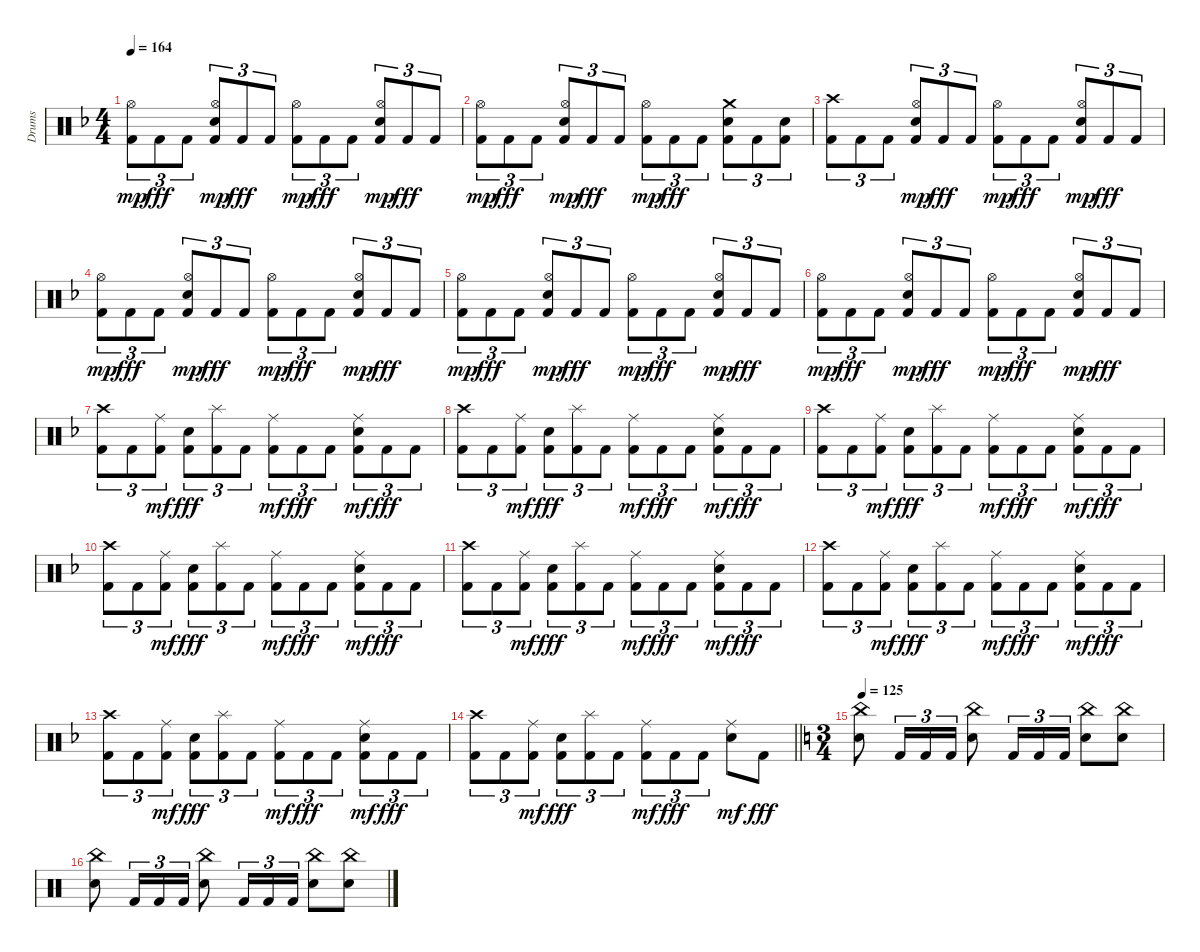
\track ("Drums" "Drums") {instrument percussion}
\staff {score}
\articulation defaults
\ts (4 4)
\tempo 164
\clef neutral
\ks f
("Kick (hit) 2" "Hi-Hat (open)").8{tu (3 2) dy mp} "Kick (hit) 2".8{tu (3 2) dy fff} "Kick (hit) 2".8{tu (3 2)} ("Kick (hit) 2" "Electric Snare (hit)" "Hi-Hat (open)").8{tu (3 2) dy mp} "Kick (hit) 2".8{tu (3 2) dy fff} "Kick (hit) 2".8{tu (3 2)} ("Kick (hit) 2" "Hi-Hat (open)").8{tu (3 2) dy mp} "Kick (hit) 2".8{tu (3 2) dy fff} "Kick (hit) 2".8{tu (3 2)} ("Kick (hit) 2" "Electric Snare (hit)" "Hi-Hat (open)").8{tu (3 2) dy mp} "Kick (hit) 2".8{tu (3 2) dy fff} "Kick (hit) 2".8{tu (3 2)} |
("Kick (hit) 2" "Hi-Hat (open)").8{tu (3 2) dy mp} "Kick (hit) 2".8{tu (3 2) dy fff} "Kick (hit) 2".8{tu (3 2)} ("Kick (hit) 2" "Electric Snare (hit)" "Hi-Hat (open)").8{tu (3 2) dy mp} "Kick (hit) 2".8{tu (3 2) dy fff} "Kick (hit) 2".8{tu (3 2)} ("Kick (hit) 2" "Hi-Hat (open)").8{tu (3 2) dy mp} "Kick (hit) 2".8{tu (3 2) dy fff} "Kick (hit) 2".8{tu (3 2)} ("Kick (hit) 2" "Electric Snare (hit)" "Crash medium (hit)").8{tu (3 2)} "Kick (hit) 2".8{tu (3 2)} ("Kick (hit) 2" "Electric Snare (hit)").8{tu (3 2)} |
("Kick (hit) 2" "Crash high (hit)").8{tu (3 2)} "Kick (hit) 2".8{tu (3 2)} "Kick (hit) 2".8{tu (3 2)} ("Kick (hit) 2" "Electric Snare (hit)" "Hi-Hat (open)").8{tu (3 2) dy mp} "Kick (hit) 2".8{tu (3 2) dy fff} "Kick (hit) 2".8{tu (3 2)} ("Kick (hit) 2" "Hi-Hat (open)").8{tu (3 2) dy mp} "Kick (hit) 2".8{tu (3 2) dy fff} "Kick (hit) 2".8{tu (3 2)} ("Kick (hit) 2" "Electric Snare (hit)" "Hi-Hat (open)").8{tu (3 2) dy mp} "Kick (hit) 2".8{tu (3 2) dy fff} "Kick (hit) 2".8{tu (3 2)} |
("Kick (hit) 2" "Hi-Hat (open)").8{tu (3 2) dy mp} "Kick (hit) 2".8{tu (3 2) dy fff} "Kick (hit) 2".8{tu (3 2)} ("Kick (hit) 2" "Electric Snare (hit)" "Hi-Hat (open)").8{tu (3 2) dy mp} "Kick (hit) 2".8{tu (3 2) dy fff} "Kick (hit) 2".8{tu (3 2)} ("Kick (hit) 2" "Hi-Hat (open)").8{tu (3 2) dy mp} "Kick (hit) 2".8{tu (3 2) dy fff} "Kick (hit) 2".8{tu (3 2)} ("Kick (hit) 2" "Electric Snare (hit)" "Hi-Hat (open)").8{tu (3 2) dy mp} "Kick (hit) 2".8{tu (3 2) dy fff} "Kick (hit) 2".8{tu (3 2)} |
("Kick (hit) 2" "Hi-Hat (open)").8{tu (3 2) dy mp} "Kick (hit) 2".8{tu (3 2) dy fff} "Kick (hit) 2".8{tu (3 2)} ("Kick (hit) 2" "Electric Snare (hit)" "Hi-Hat (open)").8{tu (3 2) dy mp} "Kick (hit) 2".8{tu (3 2) dy fff} "Kick (hit) 2".8{tu (3 2)} ("Kick (hit) 2" "Hi-Hat (open)").8{tu (3 2) dy mp} "Kick (hit) 2".8{tu (3 2) dy fff} "Kick (hit) 2".8{tu (3 2)} ("Kick (hit) 2" "Electric Snare (hit)" "Hi-Hat (open)").8{tu (3 2) dy mp} "Kick (hit) 2".8{tu (3 2) dy fff} "Kick (hit) 2".8{tu (3 2)} |
("Kick (hit) 2" "Hi-Hat (open)").8{tu (3 2) dy mp} "Kick (hit) 2".8{tu (3 2) dy fff} "Kick (hit) 2".8{tu (3 2)} ("Kick (hit) 2" "Electric Snare (hit)" "Hi-Hat (open)").8{tu (3 2) dy mp} "Kick (hit) 2".8{tu (3 2) dy fff} "Kick (hit) 2".8{tu (3 2)} ("Kick (hit) 2" "Hi-Hat (open)").8{tu (3 2) dy mp} "Kick (hit) 2".8{tu (3 2) dy fff} "Kick (hit) 2".8{tu (3 2)} ("Kick (hit) 2" "Electric Snare (hit)" "Hi-Hat (open)").8{tu (3 2) dy mp} "Kick (hit) 2".8{tu (3 2) dy fff} "Kick (hit) 2".8{tu (3 2)} |
("Kick (hit) 2" "Crash high (hit)").8{tu (3 2)} "Kick (hit) 2".8{tu (3 2)} ("Kick (hit) 2" "Ride (middle)").8{tu (3 2) dy mf} ("Kick (hit) 2" "Electric Snare (hit)").8{tu (3 2) dy fff} ("Kick (hit) 2" "Splash (hit)").8{tu (3 2)} "Kick (hit) 2".8{tu (3 2)} ("Kick (hit) 2" "Ride (middle)").8{tu (3 2) dy mf} "Kick (hit) 2".8{tu (3 2) dy fff} "Kick (hit) 2".8{tu (3 2)} ("Kick (hit) 2" "Electric Snare (hit)" "Ride (middle)").8{tu (3 2) dy mf} "Kick (hit) 2".8{tu (3 2) dy fff} "Kick (hit) 2".8{tu (3 2)} |
("Kick (hit) 2" "Crash high (hit)").8{tu (3 2)} "Kick (hit) 2".8{tu (3 2)} ("Kick (hit) 2" "Ride (middle)").8{tu (3 2) dy mf} ("Kick (hit) 2" "Electric Snare (hit)").8{tu (3 2) dy fff} ("Kick (hit) 2" "Splash (hit)").8{tu (3 2)} "Kick (hit) 2".8{tu (3 2)} ("Kick (hit) 2" "Ride (middle)").8{tu (3 2) dy mf} "Kick (hit) 2".8{tu (3 2) dy fff} "Kick (hit) 2".8{tu (3 2)} ("Kick (hit) 2" "Electric Snare (hit)" "Ride (middle)").8{tu (3 2) dy mf} "Kick (hit) 2".8{tu (3 2) dy fff} "Kick (hit) 2".8{tu (3 2)} |
("Kick (hit) 2" "Crash high (hit)").8{tu (3 2)} "Kick (hit) 2".8{tu (3 2)} ("Kick (hit) 2" "Ride (middle)").8{tu (3 2) dy mf} ("Kick (hit) 2" "Electric Snare (hit)").8{tu (3 2) dy fff} ("Kick (hit) 2" "Splash (hit)").8{tu (3 2)} "Kick (hit) 2".8{tu (3 2)} ("Kick (hit) 2" "Ride (middle)").8{tu (3 2) dy mf} "Kick (hit) 2".8{tu (3 2) dy fff} "Kick (hit) 2".8{tu (3 2)} ("Kick (hit) 2" "Electric Snare (hit)" "Ride (middle)").8{tu (3 2) dy mf} "Kick (hit) 2".8{tu (3 2) dy fff} "Kick (hit) 2".8{tu (3 2)} |
("Kick (hit) 2" "Crash high (hit)").8{tu (3 2)} "Kick (hit) 2".8{tu (3 2)} ("Kick (hit) 2" "Ride (middle)").8{tu (3 2) dy mf} ("Kick (hit) 2" "Electric Snare (hit)").8{tu (3 2) dy fff} ("Kick (hit) 2" "Splash (hit)").8{tu (3 2)} "Kick (hit) 2".8{tu (3 2)} ("Kick (hit) 2" "Ride (middle)").8{tu (3 2) dy mf} "Kick (hit) 2".8{tu (3 2) dy fff} "Kick (hit) 2".8{tu (3 2)} ("Kick (hit) 2" "Electric Snare (hit)" "Ride (middle)").8{tu (3 2) dy mf} "Kick (hit) 2".8{tu (3 2) dy fff} "Kick (hit) 2".8{tu (3 2)} |
("Kick (hit) 2" "Crash high (hit)").8{tu (3 2)} "Kick (hit) 2".8{tu (3 2)} ("Kick (hit) 2" "Ride (middle)").8{tu (3 2) dy mf} ("Kick (hit) 2" "Electric Snare (hit)").8{tu (3 2) dy fff} ("Kick (hit) 2" "Splash (hit)").8{tu (3 2)} "Kick (hit) 2".8{tu (3 2)} ("Kick (hit) 2" "Ride (middle)").8{tu (3 2) dy mf} "Kick (hit) 2".8{tu (3 2) dy fff} "Kick (hit) 2".8{tu (3 2)} ("Kick (hit) 2" "Electric Snare (hit)" "Ride (middle)").8{tu (3 2) dy mf} "Kick (hit) 2".8{tu (3 2) dy fff} "Kick (hit) 2".8{tu (3 2)} |
("Kick (hit) 2" "Crash high (hit)").8{tu (3 2)} "Kick (hit) 2".8{tu (3 2)} ("Kick (hit) 2" "Ride (middle)").8{tu (3 2) dy mf} ("Kick (hit) 2" "Electric Snare (hit)").8{tu (3 2) dy fff} ("Kick (hit) 2" "Splash (hit)").8{tu (3 2)} "Kick (hit) 2".8{tu (3 2)} ("Kick (hit) 2" "Ride (middle)").8{tu (3 2) dy mf} "Kick (hit) 2".8{tu (3 2) dy fff} "Kick (hit) 2".8{tu (3 2)} ("Kick (hit) 2" "Electric Snare (hit)" "Ride (middle)").8{tu (3 2) dy mf} "Kick (hit) 2".8{tu (3 2) dy fff} "Kick (hit) 2".8{tu (3 2)} |
("Kick (hit) 2" "Crash high (hit)").8{tu (3 2)} "Kick (hit) 2".8{tu (3 2)} ("Kick (hit) 2" "Ride (middle)").8{tu (3 2) dy mf} ("Kick (hit) 2" "Electric Snare (hit)").8{tu (3 2) dy fff} ("Kick (hit) 2" "Splash (hit)").8{tu (3 2)} "Kick (hit) 2".8{tu (3 2)} ("Kick (hit) 2" "Ride (middle)").8{tu (3 2) dy mf} "Kick (hit) 2".8{tu (3 2) dy fff} "Kick (hit) 2".8{tu (3 2)} ("Kick (hit) 2" "Electric Snare (hit)" "Ride (middle)").8{tu (3 2) dy mf} "Kick (hit) 2".8{tu (3 2) dy fff} "Kick (hit) 2".8{tu (3 2)} |
\barLineRight lightlight
("Kick (hit) 2" "Crash high (hit)").8{tu (3 2)} "Kick (hit) 2".8{tu (3 2)} ("Kick (hit) 2" "Ride (middle)").8{tu (3 2) dy mf} ("Kick (hit) 2" "Electric Snare (hit)").8{tu (3 2) dy fff} ("Kick (hit) 2" "Splash (hit)").8{tu (3 2)} "Kick (hit) 2".8{tu (3 2)} ("Kick (hit) 2" "Ride (middle)").8{tu (3 2) dy mf} "Kick (hit) 2".8{tu (3 2) dy fff} "Kick (hit) 2".8{tu (3 2)} ("Electric Snare (hit)" "Ride (middle)").8{dy mf} "Kick (hit) 2".8{dy fff} |
\ts (3 4)
\tempo 125
\ks c
("Electric Snare (hit)" "China (hit)").8 "Kick (hit) 2".16{tu (3 2)} "Kick (hit) 2".16{tu (3 2)} "Kick (hit) 2".16{tu (3 2)} ("Electric Snare (hit)" "China (hit)").8 "Kick (hit) 2".16{tu (3 2)} "Kick (hit) 2".16{tu (3 2)} "Kick (hit) 2".16{tu (3 2)} ("Electric Snare (hit)" "China (hit)").8 ("Electric Snare (hit)" "China (hit)").8 |
("Electric Snare (hit)" "China (hit)").8 "Kick (hit) 2".16{tu (3 2)} "Kick (hit) 2".16{tu (3 2)} "Kick (hit) 2".16{tu (3 2)} ("Electric Snare (hit)" "China (hit)").8 "Kick (hit) 2".16{tu (3 2)} "Kick (hit) 2".16{tu (3 2)} "Kick (hit) 2".16{tu (3 2)} ("Electric Snare (hit)" "China (hit)").8 ("Electric Snare (hit)" "China (hit)").8
